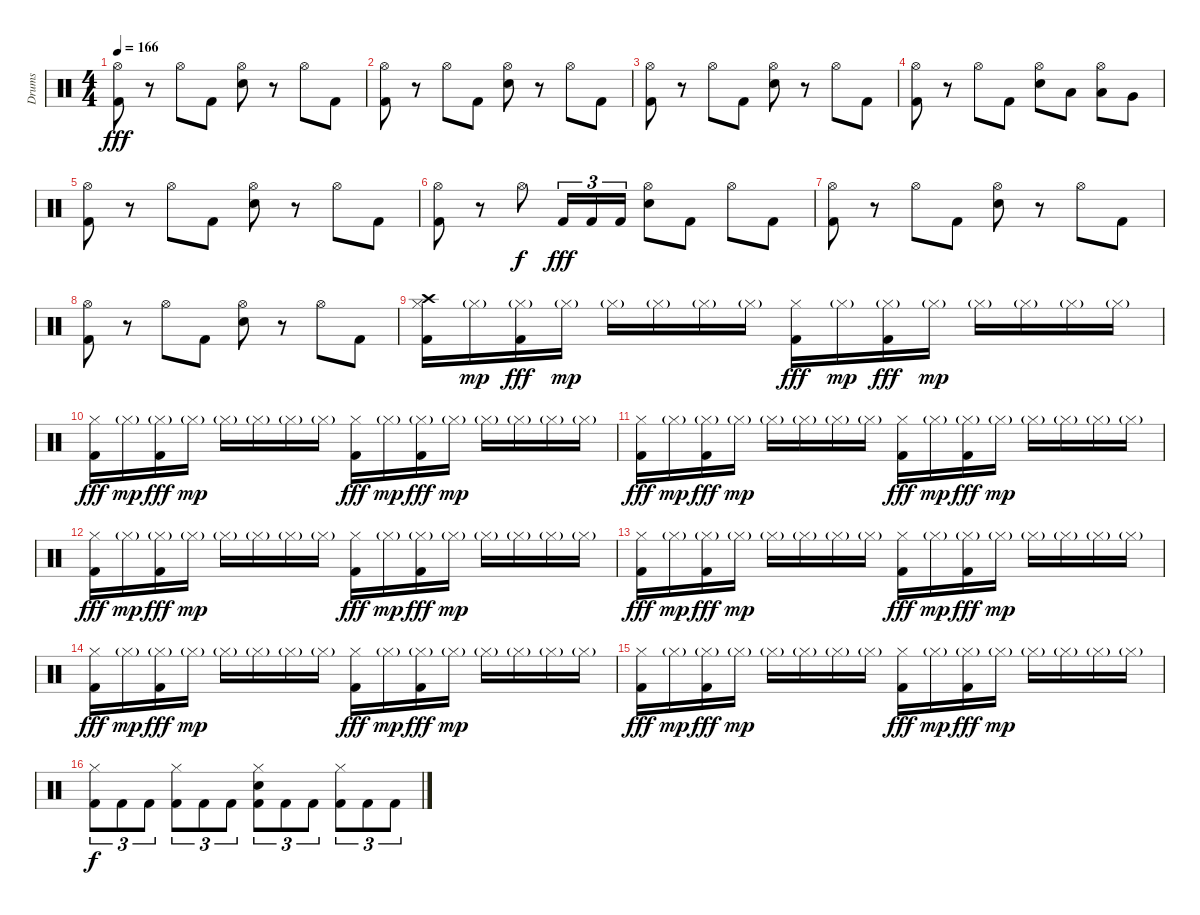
\track ("Drums" "Drums") {instrument percussion}
\staff {score}
\articulation defaults
\ts (4 4)
\tempo 166
\clef neutral
\ks c
("Hi-Hat (open)" "Kick (hit) 2").8{dy fff} r.8 "Hi-Hat (open)".8 "Kick (hit) 2".8 ("Hi-Hat (open)" "Snare (hit) 2").8 r.8 "Hi-Hat (open)".8 "Kick (hit) 2".8 |
("Hi-Hat (open)" "Kick (hit) 2").8 r.8 "Hi-Hat (open)".8 "Kick (hit) 2".8 ("Hi-Hat (open)" "Snare (hit) 2").8 r.8 "Hi-Hat (open)".8 "Kick (hit) 2".8 |
("Hi-Hat (open)" "Kick (hit) 2").8 r.8 "Hi-Hat (open)".8 "Kick (hit) 2".8 ("Hi-Hat (open)" "Snare (hit) 2").8 r.8 "Hi-Hat (open)".8 "Kick (hit) 2".8 |
("Hi-Hat (open)" "Kick (hit) 2").8 r.8 "Hi-Hat (open)".8 "Kick (hit) 2".8 ("Hi-Hat (open)" "Snare (hit) 2").8 "Low Tom (hit)".8 ("Hi-Hat (open)" "Low Tom (hit)").8 "Very Low Tom (hit)".8 |
("Hi-Hat (open)" "Kick (hit) 2").8 r.8 "Hi-Hat (open)".8 "Kick (hit) 2".8 ("Hi-Hat (open)" "Snare (hit) 2").8 r.8 "Hi-Hat (open)".8 "Kick (hit) 2".8 |
("Hi-Hat (open)" "Kick (hit) 2").8 r.8 "Hi-Hat (open)".8{dy f} "Kick (hit) 2".16{tu (3 2) dy fff} "Kick (hit) 2".16{tu (3 2)} "Kick (hit) 2".16{tu (3 2)} ("Hi-Hat (open)" "Snare (hit) 2").8 "Kick (hit) 2".8 "Hi-Hat (open)".8 "Kick (hit) 2".8 |
("Hi-Hat (open)" "Kick (hit) 2").8 r.8 "Hi-Hat (open)".8 "Kick (hit) 2".8 ("Hi-Hat (open)" "Snare (hit) 2").8 r.8 "Hi-Hat (open)".8 "Kick (hit) 2".8 |
("Hi-Hat (open)" "Kick (hit) 2").8 r.8 "Hi-Hat (open)".8 "Kick (hit) 2".8 ("Hi-Hat (open)" "Snare (hit) 2").8 r.8 "Hi-Hat (open)".8 "Kick (hit) 2".8 |
("Crash high (hit)" "Hi-Hat (closed)" "Kick (hit) 2").16{volume 15} "Hi-Hat (closed)"{g}.16{dy mp} ("Hi-Hat (closed)"{g} "Kick (hit) 2").16{dy fff} "Hi-Hat (closed)"{g}.16{dy mp} "Hi-Hat (closed)"{g}.16 "Hi-Hat (closed)"{g}.16 "Hi-Hat (closed)"{g}.16 "Hi-Hat (closed)"{g}.16 ("Hi-Hat (closed)" "Kick (hit) 2").16{dy fff} "Hi-Hat (closed)"{g}.16{dy mp} ("Hi-Hat (closed)"{g} "Kick (hit) 2").16{dy fff} "Hi-Hat (closed)"{g}.16{dy mp} "Hi-Hat (closed)"{g}.16 "Hi-Hat (closed)"{g}.16 "Hi-Hat (closed)"{g}.16 "Hi-Hat (closed)"{g}.16 |
("Hi-Hat (closed)" "Kick (hit) 2").16{dy fff} "Hi-Hat (closed)"{g}.16{dy mp} ("Hi-Hat (closed)"{g} "Kick (hit) 2").16{dy fff} "Hi-Hat (closed)"{g}.16{dy mp} "Hi-Hat (closed)"{g}.16 "Hi-Hat (closed)"{g}.16 "Hi-Hat (closed)"{g}.16 "Hi-Hat (closed)"{g}.16 ("Hi-Hat (closed)" "Kick (hit) 2").16{dy fff} "Hi-Hat (closed)"{g}.16{dy mp} ("Hi-Hat (closed)"{g} "Kick (hit) 2").16{dy fff} "Hi-Hat (closed)"{g}.16{dy mp} "Hi-Hat (closed)"{g}.16 "Hi-Hat (closed)"{g}.16 "Hi-Hat (closed)"{g}.16 "Hi-Hat (closed)"{g}.16 |
("Hi-Hat (closed)" "Kick (hit) 2").16{dy fff} "Hi-Hat (closed)"{g}.16{dy mp} ("Hi-Hat (closed)"{g} "Kick (hit) 2").16{dy fff} "Hi-Hat (closed)"{g}.16{dy mp} "Hi-Hat (closed)"{g}.16 "Hi-Hat (closed)"{g}.16 "Hi-Hat (closed)"{g}.16 "Hi-Hat (closed)"{g}.16 ("Hi-Hat (closed)" "Kick (hit) 2").16{dy fff} "Hi-Hat (closed)"{g}.16{dy mp} ("Hi-Hat (closed)"{g} "Kick (hit) 2").16{dy fff} "Hi-Hat (closed)"{g}.16{dy mp} "Hi-Hat (closed)"{g}.16 "Hi-Hat (closed)"{g}.16 "Hi-Hat (closed)"{g}.16 "Hi-Hat (closed)"{g}.16 |
("Hi-Hat (closed)" "Kick (hit) 2").16{dy fff} "Hi-Hat (closed)"{g}.16{dy mp} ("Hi-Hat (closed)"{g} "Kick (hit) 2").16{dy fff} "Hi-Hat (closed)"{g}.16{dy mp} "Hi-Hat (closed)"{g}.16 "Hi-Hat (closed)"{g}.16 "Hi-Hat (closed)"{g}.16 "Hi-Hat (closed)"{g}.16 ("Hi-Hat (closed)" "Kick (hit) 2").16{dy fff} "Hi-Hat (closed)"{g}.16{dy mp} ("Hi-Hat (closed)"{g} "Kick (hit) 2").16{dy fff} "Hi-Hat (closed)"{g}.16{dy mp} "Hi-Hat (closed)"{g}.16 "Hi-Hat (closed)"{g}.16 "Hi-Hat (closed)"{g}.16 "Hi-Hat (closed)"{g}.16 |
("Hi-Hat (closed)" "Kick (hit) 2").16{dy fff} "Hi-Hat (closed)"{g}.16{dy mp} ("Hi-Hat (closed)"{g} "Kick (hit) 2").16{dy fff} "Hi-Hat (closed)"{g}.16{dy mp} "Hi-Hat (closed)"{g}.16 "Hi-Hat (closed)"{g}.16 "Hi-Hat (closed)"{g}.16 "Hi-Hat (closed)"{g}.16 ("Hi-Hat (closed)" "Kick (hit) 2").16{dy fff} "Hi-Hat (closed)"{g}.16{dy mp} ("Hi-Hat (closed)"{g} "Kick (hit) 2").16{dy fff} "Hi-Hat (closed)"{g}.16{dy mp} "Hi-Hat (closed)"{g}.16 "Hi-Hat (closed)"{g}.16 "Hi-Hat (closed)"{g}.16 "Hi-Hat (closed)"{g}.16 |
("Hi-Hat (closed)" "Kick (hit) 2").16{dy fff} "Hi-Hat (closed)"{g}.16{dy mp} ("Hi-Hat (closed)"{g} "Kick (hit) 2").16{dy fff} "Hi-Hat (closed)"{g}.16{dy mp} "Hi-Hat (closed)"{g}.16 "Hi-Hat (closed)"{g}.16 "Hi-Hat (closed)"{g}.16 "Hi-Hat (closed)"{g}.16 ("Hi-Hat (closed)" "Kick (hit) 2").16{dy fff} "Hi-Hat (closed)"{g}.16{dy mp} ("Hi-Hat (closed)"{g} "Kick (hit) 2").16{dy fff} "Hi-Hat (closed)"{g}.16{dy mp} "Hi-Hat (closed)"{g}.16 "Hi-Hat (closed)"{g}.16 "Hi-Hat (closed)"{g}.16 "Hi-Hat (closed)"{g}.16 |
("Hi-Hat (closed)" "Kick (hit) 2").16{dy fff} "Hi-Hat (closed)"{g}.16{dy mp} ("Hi-Hat (closed)"{g} "Kick (hit) 2").16{dy fff} "Hi-Hat (closed)"{g}.16{dy mp} "Hi-Hat (closed)"{g}.16 "Hi-Hat (closed)"{g}.16 "Hi-Hat (closed)"{g}.16 "Hi-Hat (closed)"{g}.16 ("Hi-Hat (closed)" "Kick (hit) 2").16{dy fff} "Hi-Hat (closed)"{g}.16{dy mp} ("Hi-Hat (closed)"{g} "Kick (hit) 2").16{dy fff} "Hi-Hat (closed)"{g}.16{dy mp} "Hi-Hat (closed)"{g}.16 "Hi-Hat (closed)"{g}.16 "Hi-Hat (closed)"{g}.16 "Hi-Hat (closed)"{g}.16 |
("Hi-Hat (closed)" "Kick (hit) 2").8{tu (3 2) dy f} "Kick (hit) 2".8{tu (3 2)} "Kick (hit) 2".8{tu (3 2)} ("Hi-Hat (closed)" "Kick (hit) 2").8{tu (3 2)} "Kick (hit) 2".8{tu (3 2)} "Kick (hit) 2".8{tu (3 2)} ("Hi-Hat (closed)" "Snare (hit) 2" "Kick (hit) 2").8{tu (3 2)} "Kick (hit) 2".8{tu (3 2)} "Kick (hit) 2".8{tu (3 2)} ("Hi-Hat (closed)" "Kick (hit) 2").8{tu (3 2)} "Kick (hit) 2".8{tu (3 2)} "Kick (hit) 2".8{tu (3 2)}
